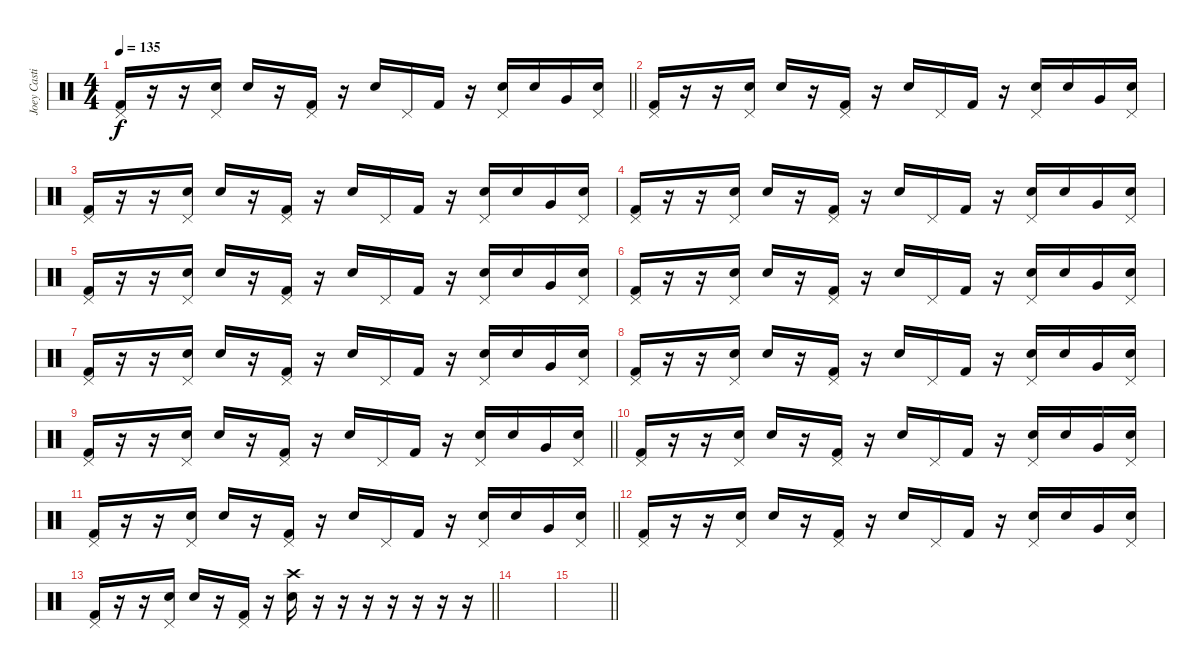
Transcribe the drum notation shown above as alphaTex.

\track ("Joey Castillo" "Joey Casti") {instrument percussion}
\staff {score}
\articulation defaults
\ts (4 4)
\tempo 135
\clef neutral
\barLineRight lightlight
\ks c
("Kick (hit) 2" "Pedal Hi-Hat (hit)").16{dy f} r.16 r.16 ("Electric Snare (hit)" "Pedal Hi-Hat (hit)").16 "Electric Snare (hit)".16 r.16 ("Kick (hit) 2" "Pedal Hi-Hat (hit)").16 r.16 "Electric Snare (hit)".16 "Pedal Hi-Hat (hit)".16 "Kick (hit) 2".16 r.16 ("Electric Snare (hit)" "Pedal Hi-Hat (hit)").16 "Electric Snare (hit)".16 "Very Low Tom (hit)".16 ("Electric Snare (hit)" "Pedal Hi-Hat (hit)").16 |
("Kick (hit) 2" "Pedal Hi-Hat (hit)").16 r.16 r.16 ("Electric Snare (hit)" "Pedal Hi-Hat (hit)").16 "Electric Snare (hit)".16 r.16 ("Kick (hit) 2" "Pedal Hi-Hat (hit)").16 r.16 "Electric Snare (hit)".16 "Pedal Hi-Hat (hit)".16 "Kick (hit) 2".16 r.16 ("Electric Snare (hit)" "Pedal Hi-Hat (hit)").16 "Electric Snare (hit)".16 "Very Low Tom (hit)".16 ("Electric Snare (hit)" "Pedal Hi-Hat (hit)").16 |
("Kick (hit) 2" "Pedal Hi-Hat (hit)").16 r.16 r.16 ("Electric Snare (hit)" "Pedal Hi-Hat (hit)").16 "Electric Snare (hit)".16 r.16 ("Kick (hit) 2" "Pedal Hi-Hat (hit)").16 r.16 "Electric Snare (hit)".16 "Pedal Hi-Hat (hit)".16 "Kick (hit) 2".16 r.16 ("Electric Snare (hit)" "Pedal Hi-Hat (hit)").16 "Electric Snare (hit)".16 "Very Low Tom (hit)".16 ("Electric Snare (hit)" "Pedal Hi-Hat (hit)").16 |
("Kick (hit) 2" "Pedal Hi-Hat (hit)").16 r.16 r.16 ("Electric Snare (hit)" "Pedal Hi-Hat (hit)").16 "Electric Snare (hit)".16 r.16 ("Kick (hit) 2" "Pedal Hi-Hat (hit)").16 r.16 "Electric Snare (hit)".16 "Pedal Hi-Hat (hit)".16 "Kick (hit) 2".16 r.16 ("Electric Snare (hit)" "Pedal Hi-Hat (hit)").16 "Electric Snare (hit)".16 "Very Low Tom (hit)".16 ("Electric Snare (hit)" "Pedal Hi-Hat (hit)").16 |
("Kick (hit) 2" "Pedal Hi-Hat (hit)").16 r.16 r.16 ("Electric Snare (hit)" "Pedal Hi-Hat (hit)").16 "Electric Snare (hit)".16 r.16 ("Kick (hit) 2" "Pedal Hi-Hat (hit)").16 r.16 "Electric Snare (hit)".16 "Pedal Hi-Hat (hit)".16 "Kick (hit) 2".16 r.16 ("Electric Snare (hit)" "Pedal Hi-Hat (hit)").16 "Electric Snare (hit)".16 "Very Low Tom (hit)".16 ("Electric Snare (hit)" "Pedal Hi-Hat (hit)").16 |
("Kick (hit) 2" "Pedal Hi-Hat (hit)").16 r.16 r.16 ("Electric Snare (hit)" "Pedal Hi-Hat (hit)").16 "Electric Snare (hit)".16 r.16 ("Kick (hit) 2" "Pedal Hi-Hat (hit)").16 r.16 "Electric Snare (hit)".16 "Pedal Hi-Hat (hit)".16 "Kick (hit) 2".16 r.16 ("Electric Snare (hit)" "Pedal Hi-Hat (hit)").16 "Electric Snare (hit)".16 "Very Low Tom (hit)".16 ("Electric Snare (hit)" "Pedal Hi-Hat (hit)").16 |
("Kick (hit) 2" "Pedal Hi-Hat (hit)").16 r.16 r.16 ("Electric Snare (hit)" "Pedal Hi-Hat (hit)").16 "Electric Snare (hit)".16 r.16 ("Kick (hit) 2" "Pedal Hi-Hat (hit)").16 r.16 "Electric Snare (hit)".16 "Pedal Hi-Hat (hit)".16 "Kick (hit) 2".16 r.16 ("Electric Snare (hit)" "Pedal Hi-Hat (hit)").16 "Electric Snare (hit)".16 "Very Low Tom (hit)".16 ("Electric Snare (hit)" "Pedal Hi-Hat (hit)").16 |
("Kick (hit) 2" "Pedal Hi-Hat (hit)").16 r.16 r.16 ("Electric Snare (hit)" "Pedal Hi-Hat (hit)").16 "Electric Snare (hit)".16 r.16 ("Kick (hit) 2" "Pedal Hi-Hat (hit)").16 r.16 "Electric Snare (hit)".16 "Pedal Hi-Hat (hit)".16 "Kick (hit) 2".16 r.16 ("Electric Snare (hit)" "Pedal Hi-Hat (hit)").16 "Electric Snare (hit)".16 "Very Low Tom (hit)".16 ("Electric Snare (hit)" "Pedal Hi-Hat (hit)").16 |
\barLineRight lightlight
("Kick (hit) 2" "Pedal Hi-Hat (hit)").16 r.16 r.16 ("Electric Snare (hit)" "Pedal Hi-Hat (hit)").16 "Electric Snare (hit)".16 r.16 ("Kick (hit) 2" "Pedal Hi-Hat (hit)").16 r.16 "Electric Snare (hit)".16 "Pedal Hi-Hat (hit)".16 "Kick (hit) 2".16 r.16 ("Electric Snare (hit)" "Pedal Hi-Hat (hit)").16 "Electric Snare (hit)".16 "Very Low Tom (hit)".16 ("Electric Snare (hit)" "Pedal Hi-Hat (hit)").16 |
("Kick (hit) 2" "Pedal Hi-Hat (hit)").16 r.16 r.16 ("Electric Snare (hit)" "Pedal Hi-Hat (hit)").16 "Electric Snare (hit)".16 r.16 ("Kick (hit) 2" "Pedal Hi-Hat (hit)").16 r.16 "Electric Snare (hit)".16 "Pedal Hi-Hat (hit)".16 "Kick (hit) 2".16 r.16 ("Electric Snare (hit)" "Pedal Hi-Hat (hit)").16 "Electric Snare (hit)".16 "Very Low Tom (hit)".16 ("Electric Snare (hit)" "Pedal Hi-Hat (hit)").16 |
\barLineRight lightlight
("Kick (hit) 2" "Pedal Hi-Hat (hit)").16 r.16 r.16 ("Electric Snare (hit)" "Pedal Hi-Hat (hit)").16 "Electric Snare (hit)".16 r.16 ("Kick (hit) 2" "Pedal Hi-Hat (hit)").16 r.16 "Electric Snare (hit)".16 "Pedal Hi-Hat (hit)".16 "Kick (hit) 2".16 r.16 ("Electric Snare (hit)" "Pedal Hi-Hat (hit)").16 "Electric Snare (hit)".16 "Very Low Tom (hit)".16 ("Electric Snare (hit)" "Pedal Hi-Hat (hit)").16 |
("Kick (hit) 2" "Pedal Hi-Hat (hit)").16 r.16 r.16 ("Electric Snare (hit)" "Pedal Hi-Hat (hit)").16 "Electric Snare (hit)".16 r.16 ("Kick (hit) 2" "Pedal Hi-Hat (hit)").16 r.16 "Electric Snare (hit)".16 "Pedal Hi-Hat (hit)".16 "Kick (hit) 2".16 r.16 ("Electric Snare (hit)" "Pedal Hi-Hat (hit)").16 "Electric Snare (hit)".16 "Very Low Tom (hit)".16 ("Electric Snare (hit)" "Pedal Hi-Hat (hit)").16 |
\barLineRight lightlight
("Kick (hit) 2" "Pedal Hi-Hat (hit)").16 r.16 r.16 ("Electric Snare (hit)" "Pedal Hi-Hat (hit)").16 "Electric Snare (hit)".16 r.16 ("Kick (hit) 2" "Pedal Hi-Hat (hit)").16 r.16 ("Crash high (hit)" "Electric Snare (hit)").16 r.16 r.16 r.16 r.16 r.16 r.16 r.16 |
|
\barLineRight lightlight
